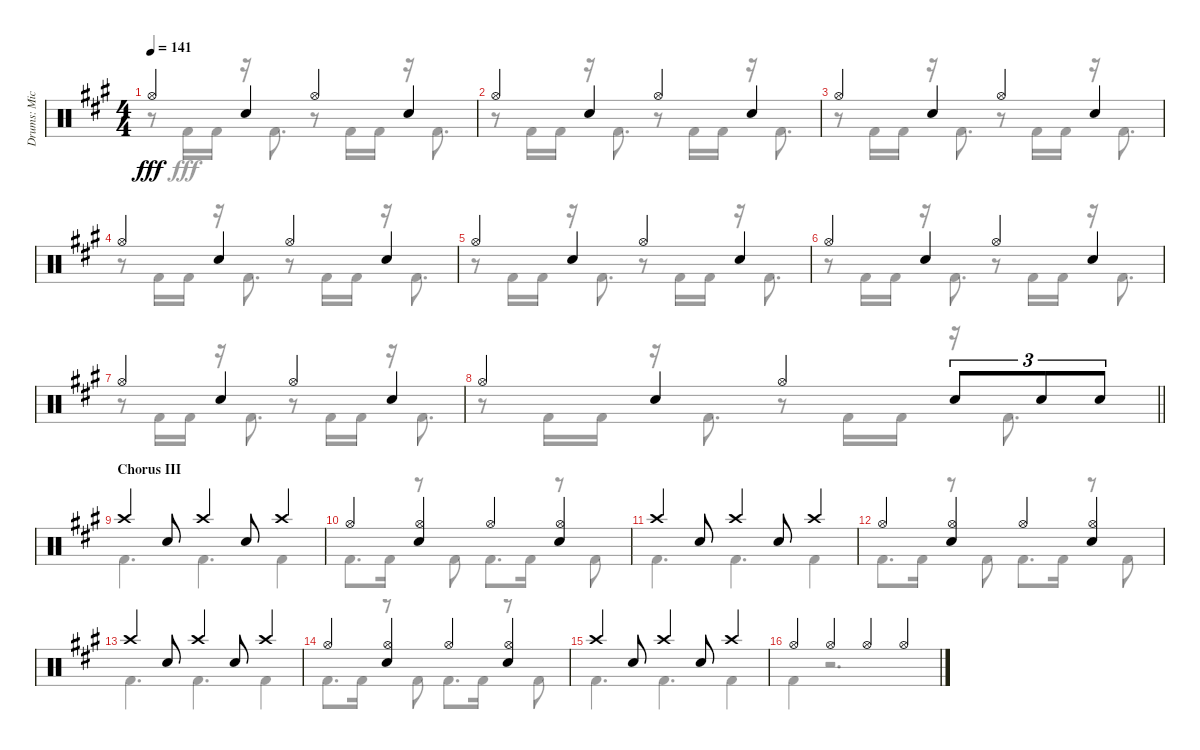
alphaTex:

\track ("Drums: Mick" "Drums: Mic") {instrument percussion}
\staff {score}
\articulation defaults
\voice
\ts (4 4)
\tempo 141
\clef neutral
\ks a "Hi-Hat (open)".4{dy fff} "Snare (hit) 2".4 "Hi-Hat (open)".4 "Snare (hit) 2".4
|
"Hi-Hat (open)".4 "Snare (hit) 2".4 "Hi-Hat (open)".4 "Snare (hit) 2".4 |
"Hi-Hat (open)".4 "Snare (hit) 2".4 "Hi-Hat (open)".4 "Snare (hit) 2".4 |
"Hi-Hat (open)".4 "Snare (hit) 2".4 "Hi-Hat (open)".4 "Snare (hit) 2".4 |
"Hi-Hat (open)".4 "Snare (hit) 2".4 "Hi-Hat (open)".4 "Snare (hit) 2".4 |
"Hi-Hat (open)".4 "Snare (hit) 2".4 "Hi-Hat (open)".4 "Snare (hit) 2".4 |
"Hi-Hat (open)".4 "Snare (hit) 2".4 "Hi-Hat (open)".4 "Snare (hit) 2".4 |
\barLineRight lightlight "Hi-Hat (open)".4 "Snare (hit) 2".4 "Hi-Hat (open)".4 "Snare (hit) 2".8{tu (3 2)} "Snare (hit) 2".8{tu (3 2)} "Snare (hit) 2".8{tu (3 2)}
|
\section ("" "Chorus III")
"Crash high (hit)".4 "Snare (hit) 2".8 "Crash high (hit)".4 "Snare (hit) 2".8 "Crash high (hit)".4 |
"Hi-Hat (open)".4 ("Hi-Hat (open)" "Snare (hit) 2").4 "Hi-Hat (open)".4 ("Hi-Hat (open)" "Snare (hit) 2").4 |
"Crash high (hit)".4 "Snare (hit) 2".8 "Crash high (hit)".4 "Snare (hit) 2".8 "Crash high (hit)".4 |
"Hi-Hat (open)".4 ("Hi-Hat (open)" "Snare (hit) 2").4 "Hi-Hat (open)".4 ("Hi-Hat (open)" "Snare (hit) 2").4 |
"Crash high (hit)".4 "Snare (hit) 2".8 "Crash high (hit)".4 "Snare (hit) 2".8 "Crash high (hit)".4 |
"Hi-Hat (open)".4 ("Hi-Hat (open)" "Snare (hit) 2").4 "Hi-Hat (open)".4 ("Hi-Hat (open)" "Snare (hit) 2").4 |
"Crash high (hit)".4 "Snare (hit) 2".8 "Crash high (hit)".4 "Snare (hit) 2".8 "Crash high (hit)".4 |
"Hi-Hat (open)".4 "Hi-Hat (open)".4 "Hi-Hat (open)".4 "Hi-Hat (open)".4
\voice
\clef neutral
\ottava regular
\simile none
\ks a
r.8{dy fff} "Kick (hit) 2".16 "Kick (hit) 2".16 r.16 "Kick (hit) 2".8{d} r.8 "Kick (hit) 2".16 "Kick (hit) 2".16 r.16 "Kick (hit) 2".8{d} |
r.8 "Kick (hit) 2".16 "Kick (hit) 2".16 r.16 "Kick (hit) 2".8{d} r.8 "Kick (hit) 2".16 "Kick (hit) 2".16 r.16 "Kick (hit) 2".8{d} |
r.8 "Kick (hit) 2".16 "Kick (hit) 2".16 r.16 "Kick (hit) 2".8{d} r.8 "Kick (hit) 2".16 "Kick (hit) 2".16 r.16 "Kick (hit) 2".8{d} |
r.8 "Kick (hit) 2".16 "Kick (hit) 2".16 r.16 "Kick (hit) 2".8{d} r.8 "Kick (hit) 2".16 "Kick (hit) 2".16 r.16 "Kick (hit) 2".8{d} |
r.8 "Kick (hit) 2".16 "Kick (hit) 2".16 r.16 "Kick (hit) 2".8{d} r.8 "Kick (hit) 2".16 "Kick (hit) 2".16 r.16 "Kick (hit) 2".8{d} |
r.8 "Kick (hit) 2".16 "Kick (hit) 2".16 r.16 "Kick (hit) 2".8{d} r.8 "Kick (hit) 2".16 "Kick (hit) 2".16 r.16 "Kick (hit) 2".8{d} |
r.8 "Kick (hit) 2".16 "Kick (hit) 2".16 r.16 "Kick (hit) 2".8{d} r.8 "Kick (hit) 2".16 "Kick (hit) 2".16 r.16 "Kick (hit) 2".8{d} |
\barLineRight lightlight
r.8 "Kick (hit) 2".16 "Kick (hit) 2".16 r.16 "Kick (hit) 2".8{d} r.8 "Kick (hit) 2".16 "Kick (hit) 2".16 r.16 "Kick (hit) 2".8{d} |
"Kick (hit) 2".4{d} "Kick (hit) 2".4{d} "Kick (hit) 2".4 |
"Kick (hit) 2".8{d} "Kick (hit) 2".16 r.8 "Kick (hit) 2".8 "Kick (hit) 2".8{d} "Kick (hit) 2".16 r.8 "Kick (hit) 2".8 |
"Kick (hit) 2".4{d} "Kick (hit) 2".4{d} "Kick (hit) 2".4 |
"Kick (hit) 2".8{d} "Kick (hit) 2".16 r.8 "Kick (hit) 2".8 "Kick (hit) 2".8{d} "Kick (hit) 2".16 r.8 "Kick (hit) 2".8 |
"Kick (hit) 2".4{d} "Kick (hit) 2".4{d} "Kick (hit) 2".4 |
"Kick (hit) 2".8{d} "Kick (hit) 2".16 r.8 "Kick (hit) 2".8 "Kick (hit) 2".8{d} "Kick (hit) 2".16 r.8 "Kick (hit) 2".8 |
"Kick (hit) 2".4{d} "Kick (hit) 2".4{d} "Kick (hit) 2".4 |
"Kick (hit) 2".4 r.2{d}
